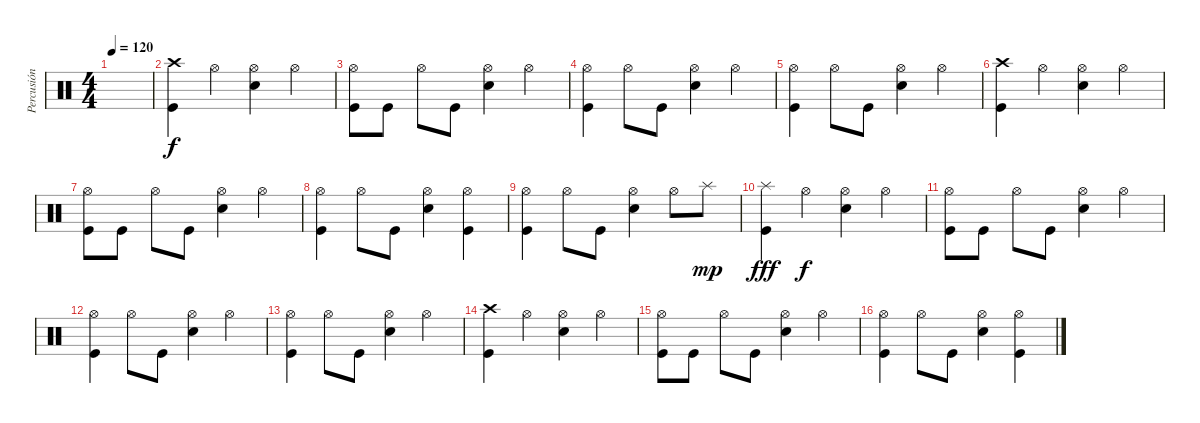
\track ("Percusión" "Percusión") {instrument percussion}
\staff {score}
\articulation defaults
\ts (4 4)
\tempo 120
\clef neutral
\ks c
|
("Crash high (hit)" "Kick (hit)").4 "Hi-Hat (open)".4 ("Hi-Hat (open)" "Electric Snare (hit)").4 "Hi-Hat (open)".4 |
("Hi-Hat (open)" "Kick (hit)").8 "Kick (hit)".8 "Hi-Hat (open)".8 "Kick (hit)".8 ("Hi-Hat (open)" "Electric Snare (hit)").4 "Hi-Hat (open)".4 |
("Hi-Hat (open)" "Kick (hit)").4 "Hi-Hat (open)".8 "Kick (hit)".8 ("Hi-Hat (open)" "Electric Snare (hit)").4 "Hi-Hat (open)".4 |
("Hi-Hat (open)" "Kick (hit)").4 "Hi-Hat (open)".8 "Kick (hit)".8 ("Hi-Hat (open)" "Electric Snare (hit)").4 "Hi-Hat (open)".4 |
("Crash high (hit)" "Kick (hit)").4 "Hi-Hat (open)".4 ("Hi-Hat (open)" "Electric Snare (hit)").4 "Hi-Hat (open)".4 |
("Hi-Hat (open)" "Kick (hit)").8 "Kick (hit)".8 "Hi-Hat (open)".8 "Kick (hit)".8 ("Hi-Hat (open)" "Electric Snare (hit)").4 "Hi-Hat (open)".4 |
("Hi-Hat (open)" "Kick (hit)").4 "Hi-Hat (open)".8 "Kick (hit)".8 ("Hi-Hat (open)" "Electric Snare (hit)").4 ("Hi-Hat (open)" "Kick (hit)").4 |
("Hi-Hat (open)" "Kick (hit)").4 "Hi-Hat (open)".8 "Kick (hit)".8 ("Hi-Hat (open)" "Electric Snare (hit)").4 "Hi-Hat (open)".8 "Splash (hit)".8{dy mp} |
("Splash (hit)" "Kick (hit)").4{dy fff} "Hi-Hat (open)".4{dy f} ("Hi-Hat (open)" "Electric Snare (hit)").4 "Hi-Hat (open)".4 |
("Hi-Hat (open)" "Kick (hit)").8 "Kick (hit)".8 "Hi-Hat (open)".8 "Kick (hit)".8 ("Hi-Hat (open)" "Electric Snare (hit)").4 "Hi-Hat (open)".4 |
("Hi-Hat (open)" "Kick (hit)").4 "Hi-Hat (open)".8 "Kick (hit)".8 ("Hi-Hat (open)" "Electric Snare (hit)").4 "Hi-Hat (open)".4 |
("Hi-Hat (open)" "Kick (hit)").4 "Hi-Hat (open)".8 "Kick (hit)".8 ("Hi-Hat (open)" "Electric Snare (hit)").4 "Hi-Hat (open)".4 |
("Crash high (hit)" "Kick (hit)").4 "Hi-Hat (open)".4 ("Hi-Hat (open)" "Electric Snare (hit)").4 "Hi-Hat (open)".4 |
("Hi-Hat (open)" "Kick (hit)").8 "Kick (hit)".8 "Hi-Hat (open)".8 "Kick (hit)".8 ("Hi-Hat (open)" "Electric Snare (hit)").4 "Hi-Hat (open)".4 |
("Hi-Hat (open)" "Kick (hit)").4 "Hi-Hat (open)".8 "Kick (hit)".8 ("Hi-Hat (open)" "Electric Snare (hit)").4 ("Hi-Hat (open)" "Kick (hit)").4
